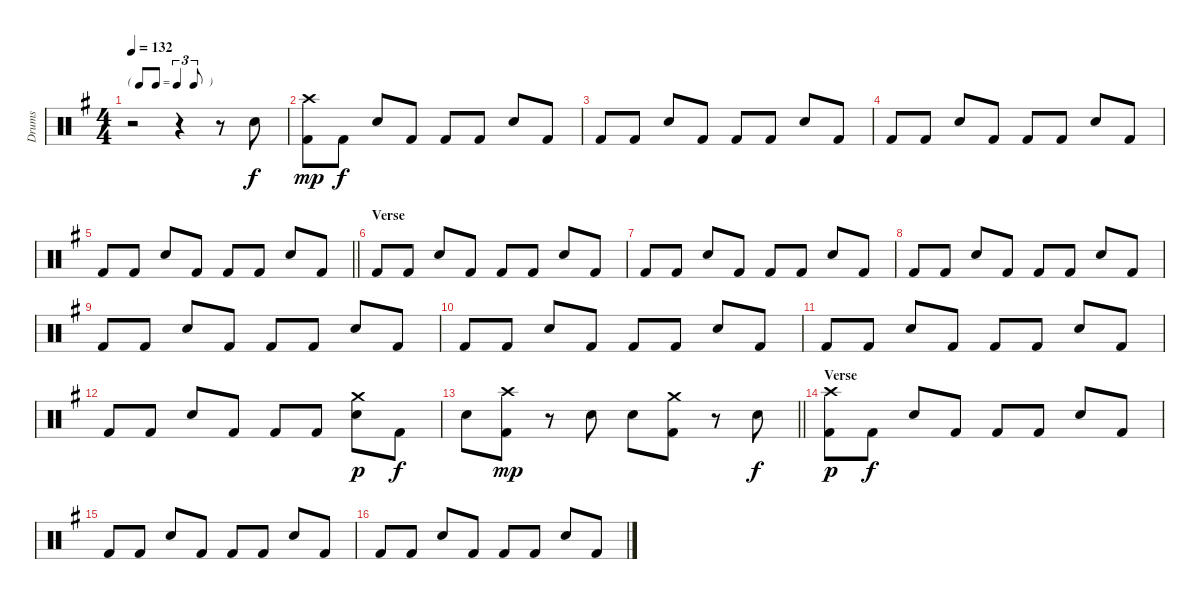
\track ("Drums" "Drums") {instrument percussion}
\staff {score}
\articulation defaults
\ts (4 4)
\tf triplet8th
\tempo 132
\clef neutral
\ks g
r.2{dy f} r.4 r.8 "Electric Snare (hit)".8 |
("Crash high (hit)" "Kick (hit) 2").8{dy mp} "Kick (hit) 2".8{dy f} "Electric Snare (hit)".8 "Kick (hit) 2".8 "Kick (hit) 2".8 "Kick (hit) 2".8 "Electric Snare (hit)".8 "Kick (hit) 2".8 |
"Kick (hit) 2".8 "Kick (hit) 2".8 "Electric Snare (hit)".8 "Kick (hit) 2".8 "Kick (hit) 2".8 "Kick (hit) 2".8 "Electric Snare (hit)".8 "Kick (hit) 2".8 |
"Kick (hit) 2".8 "Kick (hit) 2".8 "Electric Snare (hit)".8 "Kick (hit) 2".8 "Kick (hit) 2".8 "Kick (hit) 2".8 "Electric Snare (hit)".8 "Kick (hit) 2".8 |
\barLineRight lightlight "Kick (hit) 2".8 "Kick (hit) 2".8 "Electric Snare (hit)".8 "Kick (hit) 2".8 "Kick (hit) 2".8 "Kick (hit) 2".8 "Electric Snare (hit)".8 "Kick (hit) 2".8
|
\section ("" "Verse")
"Kick (hit) 2".8 "Kick (hit) 2".8 "Electric Snare (hit)".8 "Kick (hit) 2".8 "Kick (hit) 2".8 "Kick (hit) 2".8 "Electric Snare (hit)".8 "Kick (hit) 2".8 |
"Kick (hit) 2".8 "Kick (hit) 2".8 "Electric Snare (hit)".8 "Kick (hit) 2".8 "Kick (hit) 2".8 "Kick (hit) 2".8 "Electric Snare (hit)".8 "Kick (hit) 2".8 |
"Kick (hit) 2".8 "Kick (hit) 2".8 "Electric Snare (hit)".8 "Kick (hit) 2".8 "Kick (hit) 2".8 "Kick (hit) 2".8 "Electric Snare (hit)".8 "Kick (hit) 2".8 |
"Kick (hit) 2".8 "Kick (hit) 2".8 "Electric Snare (hit)".8 "Kick (hit) 2".8 "Kick (hit) 2".8 "Kick (hit) 2".8 "Electric Snare (hit)".8 "Kick (hit) 2".8 |
"Kick (hit) 2".8 "Kick (hit) 2".8 "Electric Snare (hit)".8 "Kick (hit) 2".8 "Kick (hit) 2".8 "Kick (hit) 2".8 "Electric Snare (hit)".8 "Kick (hit) 2".8 |
"Kick (hit) 2".8 "Kick (hit) 2".8 "Electric Snare (hit)".8 "Kick (hit) 2".8 "Kick (hit) 2".8 "Kick (hit) 2".8 "Electric Snare (hit)".8 "Kick (hit) 2".8 |
"Kick (hit) 2".8 "Kick (hit) 2".8 "Electric Snare (hit)".8 "Kick (hit) 2".8 "Kick (hit) 2".8 "Kick (hit) 2".8 ("Crash medium (hit)" "Electric Snare (hit)").8{dy p} "Kick (hit) 2".8{dy f} |
\barLineRight lightlight "Electric Snare (hit)".8
("Crash high (hit)" "Kick (hit) 2").8{dy mp} r.8 "Electric Snare (hit)".8 "Electric Snare (hit)".8 ("Crash medium (hit)" "Kick (hit) 2").8 r.8 "Electric Snare (hit)".8{dy f} |
\section ("" "Verse")
("Crash high (hit)" "Kick (hit) 2").8{dy p} "Kick (hit) 2".8{dy f} "Electric Snare (hit)".8 "Kick (hit) 2".8 "Kick (hit) 2".8 "Kick (hit) 2".8 "Electric Snare (hit)".8 "Kick (hit) 2".8 |
"Kick (hit) 2".8 "Kick (hit) 2".8 "Electric Snare (hit)".8 "Kick (hit) 2".8 "Kick (hit) 2".8 "Kick (hit) 2".8 "Electric Snare (hit)".8 "Kick (hit) 2".8 |
"Kick (hit) 2".8 "Kick (hit) 2".8 "Electric Snare (hit)".8 "Kick (hit) 2".8 "Kick (hit) 2".8 "Kick (hit) 2".8 "Electric Snare (hit)".8 "Kick (hit) 2".8
